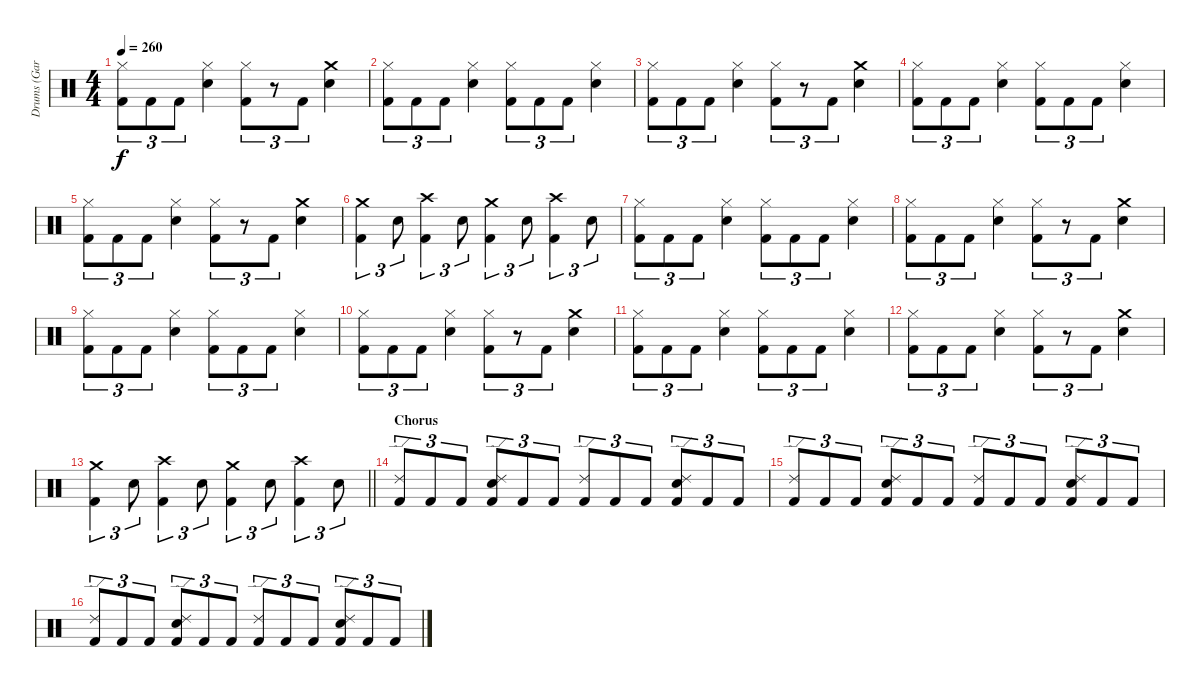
\track ("Drums (Gar Samuelson)" "Drums (Gar") {instrument percussion}
\staff {score}
\articulation defaults
\ts (4 4)
\tempo 260
\clef neutral
\ks c
("Hi-Hat (closed)" "Kick (hit) 2").8{tu (3 2) dy f} "Kick (hit) 2".8{tu (3 2)} "Kick (hit) 2".8{tu (3 2)} ("Hi-Hat (closed)" "Snare (hit) 2").4 ("Hi-Hat (closed)" "Kick (hit) 2").8{tu (3 2)} r.8{tu (3 2)} "Kick (hit) 2".8{tu (3 2)} ("Crash medium (hit)" "Snare (hit) 2").4 |
("Hi-Hat (closed)" "Kick (hit) 2").8{tu (3 2)} "Kick (hit) 2".8{tu (3 2)} "Kick (hit) 2".8{tu (3 2)} ("Hi-Hat (closed)" "Snare (hit) 2").4 ("Hi-Hat (closed)" "Kick (hit) 2").8{tu (3 2)} "Kick (hit) 2".8{tu (3 2)} "Kick (hit) 2".8{tu (3 2)} ("Hi-Hat (closed)" "Snare (hit) 2").4 |
("Hi-Hat (closed)" "Kick (hit) 2").8{tu (3 2)} "Kick (hit) 2".8{tu (3 2)} "Kick (hit) 2".8{tu (3 2)} ("Hi-Hat (closed)" "Snare (hit) 2").4 ("Hi-Hat (closed)" "Kick (hit) 2").8{tu (3 2)} r.8{tu (3 2)} "Kick (hit) 2".8{tu (3 2)} ("Crash medium (hit)" "Snare (hit) 2").4 |
("Hi-Hat (closed)" "Kick (hit) 2").8{tu (3 2)} "Kick (hit) 2".8{tu (3 2)} "Kick (hit) 2".8{tu (3 2)} ("Hi-Hat (closed)" "Snare (hit) 2").4 ("Hi-Hat (closed)" "Kick (hit) 2").8{tu (3 2)} "Kick (hit) 2".8{tu (3 2)} "Kick (hit) 2".8{tu (3 2)} ("Hi-Hat (closed)" "Snare (hit) 2").4 |
("Hi-Hat (closed)" "Kick (hit) 2").8{tu (3 2)} "Kick (hit) 2".8{tu (3 2)} "Kick (hit) 2".8{tu (3 2)} ("Hi-Hat (closed)" "Snare (hit) 2").4 ("Hi-Hat (closed)" "Kick (hit) 2").8{tu (3 2)} r.8{tu (3 2)} "Kick (hit) 2".8{tu (3 2)} ("Crash medium (hit)" "Snare (hit) 2").4 |
("Crash medium (hit)" "Kick (hit) 2").4{tu (3 2)} "Snare (hit) 2".8{tu (3 2)} ("Crash high (hit)" "Kick (hit) 2").4{tu (3 2)} "Snare (hit) 2".8{tu (3 2)} ("Crash medium (hit)" "Kick (hit) 2").4{tu (3 2)} "Snare (hit) 2".8{tu (3 2)} ("Crash high (hit)" "Kick (hit) 2").4{tu (3 2)} "Snare (hit) 2".8{tu (3 2)} |
("Hi-Hat (closed)" "Kick (hit) 2").8{tu (3 2)} "Kick (hit) 2".8{tu (3 2)} "Kick (hit) 2".8{tu (3 2)} ("Hi-Hat (closed)" "Snare (hit) 2").4 ("Hi-Hat (closed)" "Kick (hit) 2").8{tu (3 2)} "Kick (hit) 2".8{tu (3 2)} "Kick (hit) 2".8{tu (3 2)} ("Hi-Hat (closed)" "Snare (hit) 2").4 |
("Hi-Hat (closed)" "Kick (hit) 2").8{tu (3 2)} "Kick (hit) 2".8{tu (3 2)} "Kick (hit) 2".8{tu (3 2)} ("Hi-Hat (closed)" "Snare (hit) 2").4 ("Hi-Hat (closed)" "Kick (hit) 2").8{tu (3 2)} r.8{tu (3 2)} "Kick (hit) 2".8{tu (3 2)} ("Crash medium (hit)" "Snare (hit) 2").4 |
("Hi-Hat (closed)" "Kick (hit) 2").8{tu (3 2)} "Kick (hit) 2".8{tu (3 2)} "Kick (hit) 2".8{tu (3 2)} ("Hi-Hat (closed)" "Snare (hit) 2").4 ("Hi-Hat (closed)" "Kick (hit) 2").8{tu (3 2)} "Kick (hit) 2".8{tu (3 2)} "Kick (hit) 2".8{tu (3 2)} ("Hi-Hat (closed)" "Snare (hit) 2").4 |
("Hi-Hat (closed)" "Kick (hit) 2").8{tu (3 2)} "Kick (hit) 2".8{tu (3 2)} "Kick (hit) 2".8{tu (3 2)} ("Hi-Hat (closed)" "Snare (hit) 2").4 ("Hi-Hat (closed)" "Kick (hit) 2").8{tu (3 2)} r.8{tu (3 2)} "Kick (hit) 2".8{tu (3 2)} ("Crash medium (hit)" "Snare (hit) 2").4 |
("Hi-Hat (closed)" "Kick (hit) 2").8{tu (3 2)} "Kick (hit) 2".8{tu (3 2)} "Kick (hit) 2".8{tu (3 2)} ("Hi-Hat (closed)" "Snare (hit) 2").4 ("Hi-Hat (closed)" "Kick (hit) 2").8{tu (3 2)} "Kick (hit) 2".8{tu (3 2)} "Kick (hit) 2".8{tu (3 2)} ("Hi-Hat (closed)" "Snare (hit) 2").4 |
("Hi-Hat (closed)" "Kick (hit) 2").8{tu (3 2)} "Kick (hit) 2".8{tu (3 2)} "Kick (hit) 2".8{tu (3 2)} ("Hi-Hat (closed)" "Snare (hit) 2").4 ("Hi-Hat (closed)" "Kick (hit) 2").8{tu (3 2)} r.8{tu (3 2)} "Kick (hit) 2".8{tu (3 2)} ("Crash medium (hit)" "Snare (hit) 2").4 |
\barLineRight lightlight
("Crash medium (hit)" "Kick (hit) 2").4{tu (3 2)} "Snare (hit) 2".8{tu (3 2)} ("Crash high (hit)" "Kick (hit) 2").4{tu (3 2)} "Snare (hit) 2".8{tu (3 2)} ("Crash medium (hit)" "Kick (hit) 2").4{tu (3 2)} "Snare (hit) 2".8{tu (3 2)} ("Crash high (hit)" "Kick (hit) 2").4{tu (3 2)} "Snare (hit) 2".8{tu (3 2)} |
\section ("" "Chorus")
("Ride (edge) 2" "Kick (hit) 2").8{tu (3 2)} "Kick (hit) 2".8{tu (3 2)} "Kick (hit) 2".8{tu (3 2)} ("Ride (edge) 2" "Snare (hit) 2" "Kick (hit) 2").8{tu (3 2)} "Kick (hit) 2".8{tu (3 2)} "Kick (hit) 2".8{tu (3 2)} ("Ride (edge) 2" "Kick (hit) 2").8{tu (3 2)} "Kick (hit) 2".8{tu (3 2)} "Kick (hit) 2".8{tu (3 2)} ("Ride (edge) 2" "Snare (hit) 2" "Kick (hit) 2").8{tu (3 2)} "Kick (hit) 2".8{tu (3 2)} "Kick (hit) 2".8{tu (3 2)} |
("Ride (edge) 2" "Kick (hit) 2").8{tu (3 2)} "Kick (hit) 2".8{tu (3 2)} "Kick (hit) 2".8{tu (3 2)} ("Ride (edge) 2" "Snare (hit) 2" "Kick (hit) 2").8{tu (3 2)} "Kick (hit) 2".8{tu (3 2)} "Kick (hit) 2".8{tu (3 2)} ("Ride (edge) 2" "Kick (hit) 2").8{tu (3 2)} "Kick (hit) 2".8{tu (3 2)} "Kick (hit) 2".8{tu (3 2)} ("Ride (edge) 2" "Snare (hit) 2" "Kick (hit) 2").8{tu (3 2)} "Kick (hit) 2".8{tu (3 2)} "Kick (hit) 2".8{tu (3 2)} |
("Ride (edge) 2" "Kick (hit) 2").8{tu (3 2)} "Kick (hit) 2".8{tu (3 2)} "Kick (hit) 2".8{tu (3 2)} ("Ride (edge) 2" "Snare (hit) 2" "Kick (hit) 2").8{tu (3 2)} "Kick (hit) 2".8{tu (3 2)} "Kick (hit) 2".8{tu (3 2)} ("Ride (edge) 2" "Kick (hit) 2").8{tu (3 2)} "Kick (hit) 2".8{tu (3 2)} "Kick (hit) 2".8{tu (3 2)} ("Ride (edge) 2" "Snare (hit) 2" "Kick (hit) 2").8{tu (3 2)} "Kick (hit) 2".8{tu (3 2)} "Kick (hit) 2".8{tu (3 2)}
